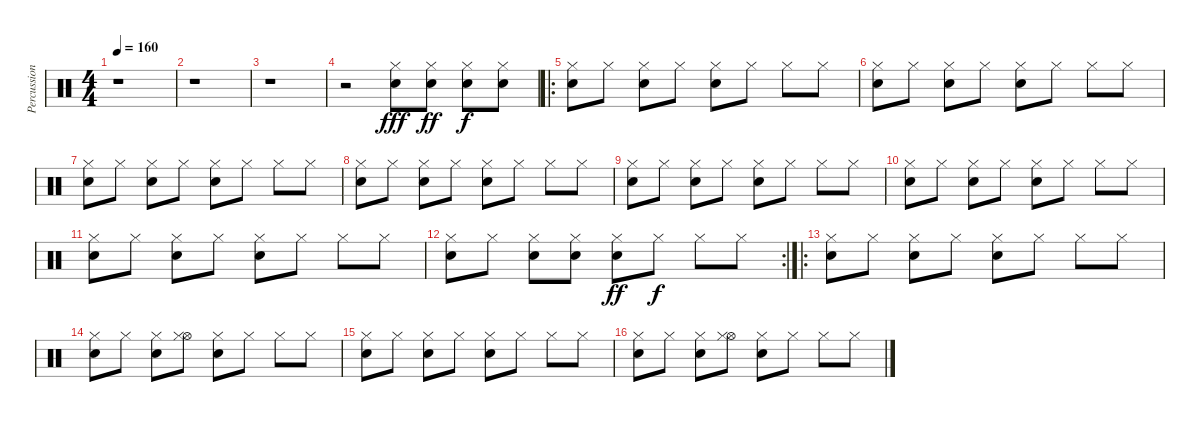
\track ("Percussions" "Percussion") {instrument percussion}
\staff {score}
\articulation defaults
\ts (4 4)
\tempo 160
\clef neutral
\ks c
r.1{dy fff} |
r.1 |
r.1 |
r.2 ("Snare (hit) 2" "Hi-Hat (closed)").8 ("Electric Snare (hit)" "Hi-Hat (closed)").8{dy ff} ("Electric Snare (hit)" "Hi-Hat (closed)").8{dy f} ("Electric Snare (hit)" "Hi-Hat (closed)").8 |
\ro
("Electric Snare (hit)" "Hi-Hat (closed)").8 "Hi-Hat (closed)".8 ("Electric Snare (hit)" "Hi-Hat (closed)").8 "Hi-Hat (closed)".8 ("Snare (hit) 2" "Hi-Hat (closed)").8 "Hi-Hat (closed)".8 "Hi-Hat (closed)".8 "Hi-Hat (closed)".8 |
("Electric Snare (hit)" "Hi-Hat (closed)").8 "Hi-Hat (closed)".8 ("Electric Snare (hit)" "Hi-Hat (closed)").8 "Hi-Hat (closed)".8 ("Snare (hit) 2" "Hi-Hat (closed)").8 "Hi-Hat (closed)".8 "Hi-Hat (closed)".8 "Hi-Hat (closed)".8 |
("Electric Snare (hit)" "Hi-Hat (closed)").8 "Hi-Hat (closed)".8 ("Electric Snare (hit)" "Hi-Hat (closed)").8 "Hi-Hat (closed)".8 ("Snare (hit) 2" "Hi-Hat (closed)").8 "Hi-Hat (closed)".8 "Hi-Hat (closed)".8 "Hi-Hat (closed)".8 |
("Electric Snare (hit)" "Hi-Hat (closed)").8 "Hi-Hat (closed)".8 ("Electric Snare (hit)" "Hi-Hat (closed)").8 "Hi-Hat (closed)".8 ("Snare (hit) 2" "Hi-Hat (closed)").8 "Hi-Hat (closed)".8 "Hi-Hat (closed)".8 "Hi-Hat (closed)".8 |
("Electric Snare (hit)" "Hi-Hat (closed)").8 "Hi-Hat (closed)".8 ("Electric Snare (hit)" "Hi-Hat (closed)").8 "Hi-Hat (closed)".8 ("Snare (hit) 2" "Hi-Hat (closed)").8 "Hi-Hat (closed)".8 "Hi-Hat (closed)".8 "Hi-Hat (closed)".8 |
("Electric Snare (hit)" "Hi-Hat (closed)").8 "Hi-Hat (closed)".8 ("Electric Snare (hit)" "Hi-Hat (closed)").8 "Hi-Hat (closed)".8 ("Snare (hit) 2" "Hi-Hat (closed)").8 "Hi-Hat (closed)".8 "Hi-Hat (closed)".8 "Hi-Hat (closed)".8 |
("Electric Snare (hit)" "Hi-Hat (closed)").8 "Hi-Hat (closed)".8 ("Electric Snare (hit)" "Hi-Hat (closed)").8 "Hi-Hat (closed)".8 ("Snare (hit) 2" "Hi-Hat (closed)").8 "Hi-Hat (closed)".8 "Hi-Hat (closed)".8 "Hi-Hat (closed)".8 |
\rc 2
("Snare (hit) 2" "Hi-Hat (closed)").8 "Hi-Hat (closed)".8 ("Electric Snare (hit)" "Hi-Hat (closed)").8 ("Electric Snare (hit)" "Hi-Hat (closed)").8 ("Snare (hit) 2" "Hi-Hat (closed)").8{dy ff} "Hi-Hat (closed)".8{dy f} "Hi-Hat (closed)".8 "Hi-Hat (closed)".8 |
\ro
("Electric Snare (hit)" "Hi-Hat (closed)").8 "Hi-Hat (closed)".8 ("Electric Snare (hit)" "Hi-Hat (closed)").8 "Hi-Hat (closed)".8 ("Snare (hit) 2" "Hi-Hat (closed)").8 "Hi-Hat (closed)".8 "Hi-Hat (closed)".8 "Hi-Hat (closed)".8 |
("Electric Snare (hit)" "Hi-Hat (closed)").8 "Hi-Hat (closed)".8 ("Electric Snare (hit)" "Hi-Hat (closed)").8 ("Hi-Hat (open)" "Hi-Hat (closed)").8 ("Snare (hit) 2" "Hi-Hat (closed)").8 "Hi-Hat (closed)".8 "Hi-Hat (closed)".8 "Hi-Hat (closed)".8 |
("Electric Snare (hit)" "Hi-Hat (closed)").8 "Hi-Hat (closed)".8 ("Electric Snare (hit)" "Hi-Hat (closed)").8 "Hi-Hat (closed)".8 ("Snare (hit) 2" "Hi-Hat (closed)").8 "Hi-Hat (closed)".8 "Hi-Hat (closed)".8 "Hi-Hat (closed)".8 |
("Electric Snare (hit)" "Hi-Hat (closed)").8 "Hi-Hat (closed)".8 ("Electric Snare (hit)" "Hi-Hat (closed)").8 ("Hi-Hat (open)" "Hi-Hat (closed)").8 ("Snare (hit) 2" "Hi-Hat (closed)").8 "Hi-Hat (closed)".8 "Hi-Hat (closed)".8 "Hi-Hat (closed)".8
